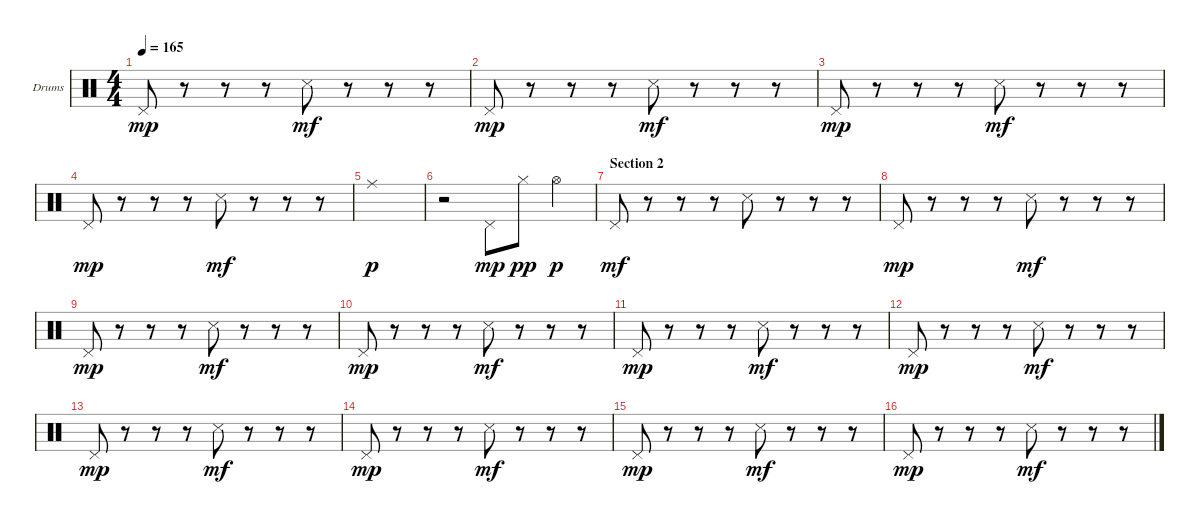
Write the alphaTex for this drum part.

\bracketExtendMode groupsimilarinstruments
\firstSystemTrackNameOrientation horizontal
\otherSystemsTrackNameOrientation horizontal
\track ("Drumkit" "Drums") {instrument percussion}
\staff {score}
\articulation defaults
\ts (4 4)
\tempo 165
\clef neutral
\ks c "Pedal Hi-Hat (hit)".8{dy mp}
r.8 r.8 r.8 "Snare (side stick) 3".8{dy mf} r.8 r.8 r.8 |
"Pedal Hi-Hat (hit)".8{dy mp} r.8 r.8 r.8 "Snare (side stick) 3".8{dy mf} r.8 r.8 r.8 |
"Pedal Hi-Hat (hit)".8{dy mp} r.8 r.8 r.8 "Snare (side stick) 3".8{dy mf} r.8 r.8 r.8 |
"Pedal Hi-Hat (hit)".8{dy mp} r.8 r.8 r.8 "Snare (side stick) 3".8{dy mf} r.8 r.8 r.8 |
"Ride (middle)".1{dy p} |
r.2 "Pedal Hi-Hat (hit)".8{dy mp} "Hi-Hat (closed)".8{dy pp} "Hi-Hat (open)".4{dy p} |
\section ("" "Section 2")
"Pedal Hi-Hat (hit)".8{dy mf} r.8 r.8 r.8 "Snare (side stick) 3".8 r.8 r.8 r.8 |
"Pedal Hi-Hat (hit)".8{dy mp} r.8 r.8 r.8 "Snare (side stick) 3".8{dy mf} r.8 r.8 r.8 |
"Pedal Hi-Hat (hit)".8{dy mp} r.8 r.8 r.8 "Snare (side stick) 3".8{dy mf} r.8 r.8 r.8 |
"Pedal Hi-Hat (hit)".8{dy mp} r.8 r.8 r.8 "Snare (side stick) 3".8{dy mf} r.8 r.8 r.8 |
"Pedal Hi-Hat (hit)".8{dy mp} r.8 r.8 r.8 "Snare (side stick) 3".8{dy mf} r.8 r.8 r.8 |
"Pedal Hi-Hat (hit)".8{dy mp} r.8 r.8 r.8 "Snare (side stick) 3".8{dy mf} r.8 r.8 r.8 |
"Pedal Hi-Hat (hit)".8{dy mp} r.8 r.8 r.8 "Snare (side stick) 3".8{dy mf} r.8 r.8 r.8 |
"Pedal Hi-Hat (hit)".8{dy mp} r.8 r.8 r.8 "Snare (side stick) 3".8{dy mf} r.8 r.8 r.8 |
"Pedal Hi-Hat (hit)".8{dy mp} r.8 r.8 r.8 "Snare (side stick) 3".8{dy mf} r.8 r.8 r.8 |
"Pedal Hi-Hat (hit)".8{dy mp} r.8 r.8 r.8 "Snare (side stick) 3".8{dy mf} r.8 r.8 r.8
